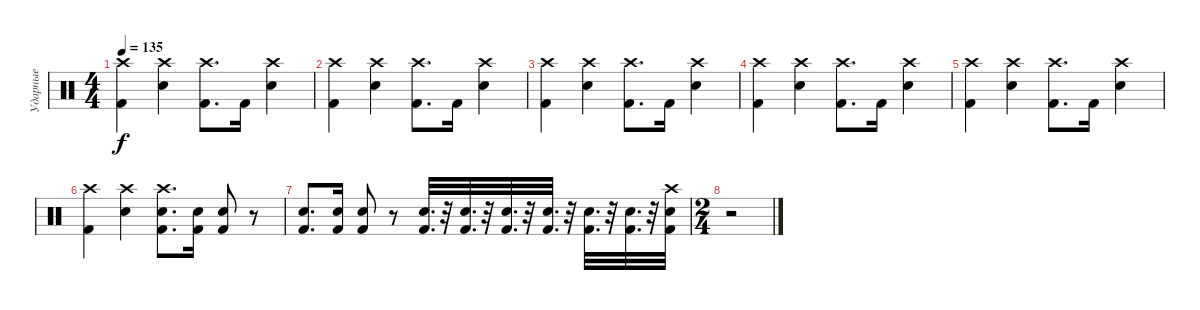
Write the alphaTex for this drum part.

\track ("Ударные" "Ударные") {instrument percussion}
\staff {score}
\articulation defaults
\ts (4 4)
\tempo 135
\clef neutral
\ks c
("Crash high (hit)" "Kick (hit) 2").4{dy f} ("Crash high (hit)" "Electric Snare (hit)").4 ("Crash high (hit)" "Kick (hit) 2").8{d} "Kick (hit) 2".16 ("Crash high (hit)" "Electric Snare (hit)").4 |
("Crash high (hit)" "Kick (hit) 2").4 ("Crash high (hit)" "Electric Snare (hit)").4 ("Crash high (hit)" "Kick (hit) 2").8{d} "Kick (hit) 2".16 ("Crash high (hit)" "Electric Snare (hit)").4 |
("Crash high (hit)" "Kick (hit) 2").4 ("Crash high (hit)" "Electric Snare (hit)").4 ("Crash high (hit)" "Kick (hit) 2").8{d} "Kick (hit) 2".16 ("Crash high (hit)" "Electric Snare (hit)").4 |
("Crash high (hit)" "Kick (hit) 2").4 ("Crash high (hit)" "Electric Snare (hit)").4 ("Crash high (hit)" "Kick (hit) 2").8{d} "Kick (hit) 2".16 ("Crash high (hit)" "Electric Snare (hit)").4 |
("Crash high (hit)" "Kick (hit) 2").4 ("Crash high (hit)" "Electric Snare (hit)").4 ("Crash high (hit)" "Kick (hit) 2").8{d} "Kick (hit) 2".16 ("Crash high (hit)" "Electric Snare (hit)").4 |
("Crash high (hit)" "Kick (hit) 2").4 ("Crash high (hit)" "Electric Snare (hit)").4 ("Crash high (hit)" "Electric Snare (hit)" "Kick (hit) 2").8{d} ("Electric Snare (hit)" "Kick (hit) 2").16 ("Electric Snare (hit)" "Kick (hit) 2").8 r.8 |
("Electric Snare (hit)" "Kick (hit) 2").8{d} ("Electric Snare (hit)" "Kick (hit) 2").16 ("Electric Snare (hit)" "Kick (hit) 2").8 r.8 ("Electric Snare (hit)" "Kick (hit) 2").32{d} r.32 ("Electric Snare (hit)" "Kick (hit) 2").32{d} r.32 ("Electric Snare (hit)" "Kick (hit) 2").32{d} r.32 ("Electric Snare (hit)" "Kick (hit) 2").32{d} r.32 ("Electric Snare (hit)" "Kick (hit) 2").32{d} r.32 ("Electric Snare (hit)" "Kick (hit) 2").32{d} r.32 ("Crash high (hit)" "Electric Snare (hit)" "Kick (hit) 2").32 |
\ts (2 4)
r.2
